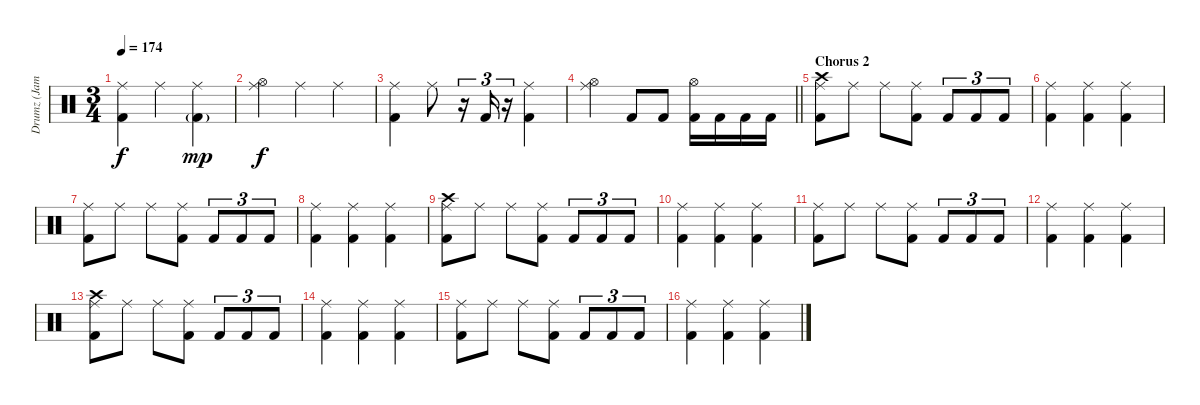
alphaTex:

\track ("Drumz (James Kottak)" "Drumz (Jam") {instrument percussion}
\staff {score}
\articulation defaults
\ts (3 4)
\tempo 174
\clef neutral
\ks c
("Ride (middle)" "Kick (hit) 2").4{dy f} "Ride (middle)".4 ("Ride (middle)" "Kick (hit) 2"{g}).4{dy mp} |
("Ride (middle)" "Hi-Hat (open)").4{dy f} "Ride (middle)".4 "Ride (middle)".4 |
("Ride (middle)" "Kick (hit) 2").4 "Ride (middle)".8 r.16{tu (3 2)} "Kick (hit) 2".16{tu (3 2)} r.16{tu (3 2)} ("Ride (middle)" "Kick (hit) 2").4 |
\barLineRight lightlight
("Ride (middle)" "Hi-Hat (open)").4 "Kick (hit) 2".8 "Kick (hit) 2".8 ("Kick (hit) 2" "Hi-Hat (open)").16 "Kick (hit) 2".16 "Kick (hit) 2".16 "Kick (hit) 2".16 |
\section ("" "Chorus 2")
("Ride (middle)" "Crash high (hit)" "Kick (hit) 2").8 "Ride (middle)".8 "Ride (middle)".8 ("Ride (middle)" "Kick (hit) 2").8 "Kick (hit) 2".8{tu (3 2)} "Kick (hit) 2".8{tu (3 2)} "Kick (hit) 2".8{tu (3 2)} |
("Ride (middle)" "Kick (hit) 2").4 ("Kick (hit) 2" "Ride (middle)").4 ("Ride (middle)" "Kick (hit) 2").4 |
("Ride (middle)" "Kick (hit) 2").8 "Ride (middle)".8 "Ride (middle)".8 ("Ride (middle)" "Kick (hit) 2").8 "Kick (hit) 2".8{tu (3 2)} "Kick (hit) 2".8{tu (3 2)} "Kick (hit) 2".8{tu (3 2)} |
("Ride (middle)" "Kick (hit) 2").4 ("Kick (hit) 2" "Ride (middle)").4 ("Ride (middle)" "Kick (hit) 2").4 |
("Ride (middle)" "Crash high (hit)" "Kick (hit) 2").8 "Ride (middle)".8 "Ride (middle)".8 ("Ride (middle)" "Kick (hit) 2").8 "Kick (hit) 2".8{tu (3 2)} "Kick (hit) 2".8{tu (3 2)} "Kick (hit) 2".8{tu (3 2)} |
("Ride (middle)" "Kick (hit) 2").4 ("Kick (hit) 2" "Ride (middle)").4 ("Ride (middle)" "Kick (hit) 2").4 |
("Ride (middle)" "Kick (hit) 2").8 "Ride (middle)".8 "Ride (middle)".8 ("Ride (middle)" "Kick (hit) 2").8 "Kick (hit) 2".8{tu (3 2)} "Kick (hit) 2".8{tu (3 2)} "Kick (hit) 2".8{tu (3 2)} |
("Ride (middle)" "Kick (hit) 2").4 ("Kick (hit) 2" "Ride (middle)").4 ("Ride (middle)" "Kick (hit) 2").4 |
("Ride (middle)" "Crash high (hit)" "Kick (hit) 2").8 "Ride (middle)".8 "Ride (middle)".8 ("Ride (middle)" "Kick (hit) 2").8 "Kick (hit) 2".8{tu (3 2)} "Kick (hit) 2".8{tu (3 2)} "Kick (hit) 2".8{tu (3 2)} |
("Ride (middle)" "Kick (hit) 2").4 ("Kick (hit) 2" "Ride (middle)").4 ("Ride (middle)" "Kick (hit) 2").4 |
("Ride (middle)" "Kick (hit) 2").8 "Ride (middle)".8 "Ride (middle)".8 ("Ride (middle)" "Kick (hit) 2").8 "Kick (hit) 2".8{tu (3 2)} "Kick (hit) 2".8{tu (3 2)} "Kick (hit) 2".8{tu (3 2)} |
("Ride (middle)" "Kick (hit) 2").4 ("Kick (hit) 2" "Ride (middle)").4 ("Ride (middle)" "Kick (hit) 2").4
